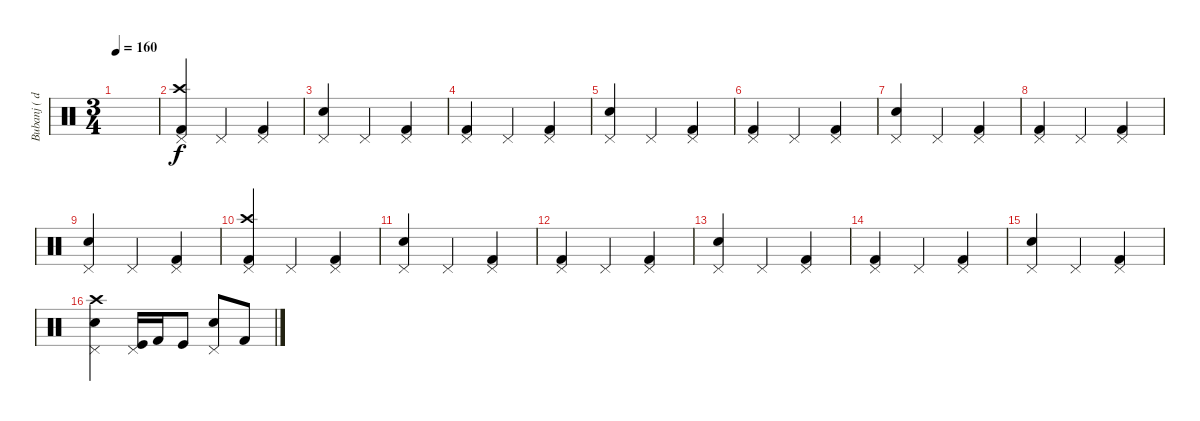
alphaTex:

\track ("Bubanj ( drums )" "Bubanj ( d") {instrument percussion}
\staff {score}
\articulation defaults
\ts (3 4)
\tempo 160
\clef neutral
\ks c
|
("Kick (hit) 2" "Crash high (hit)" "Pedal Hi-Hat (hit)").4 "Pedal Hi-Hat (hit)".4 ("Kick (hit) 2" "Pedal Hi-Hat (hit)").4 |
("Snare (hit) 2" "Pedal Hi-Hat (hit)").4 "Pedal Hi-Hat (hit)".4 ("Kick (hit) 2" "Pedal Hi-Hat (hit)").4 |
("Kick (hit) 2" "Pedal Hi-Hat (hit)").4 "Pedal Hi-Hat (hit)".4 ("Kick (hit) 2" "Pedal Hi-Hat (hit)").4 |
("Snare (hit) 2" "Pedal Hi-Hat (hit)").4 "Pedal Hi-Hat (hit)".4 ("Kick (hit) 2" "Pedal Hi-Hat (hit)").4 |
("Kick (hit) 2" "Pedal Hi-Hat (hit)").4 "Pedal Hi-Hat (hit)".4 ("Kick (hit) 2" "Pedal Hi-Hat (hit)").4 |
("Snare (hit) 2" "Pedal Hi-Hat (hit)").4 "Pedal Hi-Hat (hit)".4 ("Kick (hit) 2" "Pedal Hi-Hat (hit)").4 |
("Kick (hit) 2" "Pedal Hi-Hat (hit)").4 "Pedal Hi-Hat (hit)".4 ("Kick (hit) 2" "Pedal Hi-Hat (hit)").4 |
("Snare (hit) 2" "Pedal Hi-Hat (hit)").4 "Pedal Hi-Hat (hit)".4 ("Kick (hit) 2" "Pedal Hi-Hat (hit)").4 |
("Kick (hit) 2" "Crash high (hit)" "Pedal Hi-Hat (hit)").4 "Pedal Hi-Hat (hit)".4 ("Kick (hit) 2" "Pedal Hi-Hat (hit)").4 |
("Snare (hit) 2" "Pedal Hi-Hat (hit)").4 "Pedal Hi-Hat (hit)".4 ("Kick (hit) 2" "Pedal Hi-Hat (hit)").4 |
("Kick (hit) 2" "Pedal Hi-Hat (hit)").4 "Pedal Hi-Hat (hit)".4 ("Kick (hit) 2" "Pedal Hi-Hat (hit)").4 |
("Snare (hit) 2" "Pedal Hi-Hat (hit)").4 "Pedal Hi-Hat (hit)".4 ("Kick (hit) 2" "Pedal Hi-Hat (hit)").4 |
("Kick (hit) 2" "Pedal Hi-Hat (hit)").4 "Pedal Hi-Hat (hit)".4 ("Kick (hit) 2" "Pedal Hi-Hat (hit)").4 |
("Snare (hit) 2" "Pedal Hi-Hat (hit)").4 "Pedal Hi-Hat (hit)".4 ("Kick (hit) 2" "Pedal Hi-Hat (hit)").4 |
("Snare (hit) 2" "Crash high (hit)" "Pedal Hi-Hat (hit)").4 ("Kick (hit)" "Pedal Hi-Hat (hit)").16 "Kick (hit) 2".16 "Kick (hit)".8 ("Snare (hit) 2" "Pedal Hi-Hat (hit)").8 "Kick (hit) 2".8
